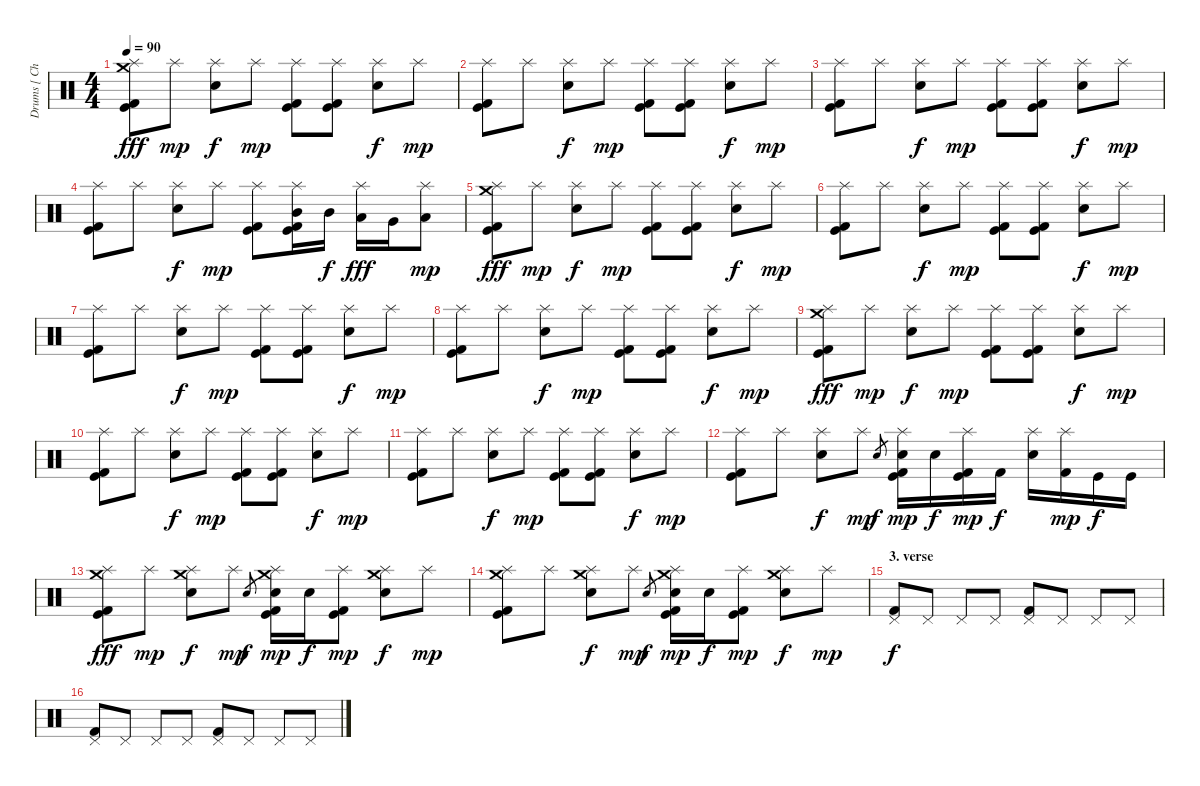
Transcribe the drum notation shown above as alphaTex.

\track ("Drums [ Christoph Schneider ]" "Drums [ Ch") {instrument percussion}
\staff {score}
\articulation defaults
\ts (4 4)
\tempo 90
\clef neutral
\ks c
("Splash (hit)" "Kick (hit)" "Kick (hit) 2" "Crash medium (hit)").8{dy fff} "Splash (hit)".8{dy mp} ("Splash (hit)" "Snare (hit) 2").8{dy f} "Splash (hit)".8{dy mp} ("Splash (hit)" "Kick (hit)" "Kick (hit) 2").8 ("Splash (hit)" "Kick (hit)" "Kick (hit) 2").8 ("Splash (hit)" "Snare (hit) 2").8{dy f} "Splash (hit)".8{dy mp} |
("Splash (hit)" "Kick (hit)" "Kick (hit) 2").8 "Splash (hit)".8 ("Splash (hit)" "Snare (hit) 2").8{dy f} "Splash (hit)".8{dy mp} ("Splash (hit)" "Kick (hit)" "Kick (hit) 2").8 ("Splash (hit)" "Kick (hit)" "Kick (hit) 2").8 ("Splash (hit)" "Snare (hit) 2").8{dy f} "Splash (hit)".8{dy mp} |
("Splash (hit)" "Kick (hit)" "Kick (hit) 2").8 "Splash (hit)".8 ("Splash (hit)" "Snare (hit) 2").8{dy f} "Splash (hit)".8{dy mp} ("Splash (hit)" "Kick (hit)" "Kick (hit) 2").8 ("Splash (hit)" "Kick (hit)" "Kick (hit) 2").8 ("Splash (hit)" "Snare (hit) 2").8{dy f} "Splash (hit)".8{dy mp} |
("Splash (hit)" "Kick (hit)" "Kick (hit) 2").8 "Splash (hit)".8 ("Splash (hit)" "Snare (hit) 2").8{dy f} "Splash (hit)".8{dy mp} ("Splash (hit)" "Kick (hit)" "Kick (hit) 2").8 ("Splash (hit)" "Kick (hit)" "Kick (hit) 2" "Mid Tom (hit)").16 "Mid Tom (hit)".16{dy f} ("Splash (hit)" "Low Tom (hit)").16{dy fff} "Very Low Tom (hit)".16 ("Splash (hit)" "Low Floor Tom (hit)").8{dy mp} |
("Splash (hit)" "Kick (hit)" "Kick (hit) 2" "Crash medium (hit)").8{dy fff} "Splash (hit)".8{dy mp} ("Splash (hit)" "Snare (hit) 2").8{dy f} "Splash (hit)".8{dy mp} ("Splash (hit)" "Kick (hit)" "Kick (hit) 2").8 ("Splash (hit)" "Kick (hit)" "Kick (hit) 2").8 ("Splash (hit)" "Snare (hit) 2").8{dy f} "Splash (hit)".8{dy mp} |
("Splash (hit)" "Kick (hit)" "Kick (hit) 2").8 "Splash (hit)".8 ("Splash (hit)" "Snare (hit) 2").8{dy f} "Splash (hit)".8{dy mp} ("Splash (hit)" "Kick (hit)" "Kick (hit) 2").8 ("Splash (hit)" "Kick (hit)" "Kick (hit) 2").8 ("Splash (hit)" "Snare (hit) 2").8{dy f} "Splash (hit)".8{dy mp} |
("Splash (hit)" "Kick (hit)" "Kick (hit) 2").8 "Splash (hit)".8 ("Splash (hit)" "Snare (hit) 2").8{dy f} "Splash (hit)".8{dy mp} ("Splash (hit)" "Kick (hit)" "Kick (hit) 2").8 ("Splash (hit)" "Kick (hit)" "Kick (hit) 2").8 ("Splash (hit)" "Snare (hit) 2").8{dy f} "Splash (hit)".8{dy mp} |
("Splash (hit)" "Kick (hit)" "Kick (hit) 2").8 "Splash (hit)".8 ("Splash (hit)" "Snare (hit) 2").8{dy f} "Splash (hit)".8{dy mp} ("Splash (hit)" "Kick (hit)" "Kick (hit) 2").8 ("Splash (hit)" "Kick (hit)" "Kick (hit) 2").8 ("Splash (hit)" "Snare (hit) 2").8{dy f} "Splash (hit)".8{dy mp} |
("Splash (hit)" "Kick (hit)" "Kick (hit) 2" "Crash medium (hit)").8{dy fff} "Splash (hit)".8{dy mp} ("Splash (hit)" "Snare (hit) 2").8{dy f} "Splash (hit)".8{dy mp} ("Splash (hit)" "Kick (hit)" "Kick (hit) 2").8 ("Splash (hit)" "Kick (hit)" "Kick (hit) 2").8 ("Splash (hit)" "Snare (hit) 2").8{dy f} "Splash (hit)".8{dy mp} |
("Splash (hit)" "Kick (hit)" "Kick (hit) 2").8 "Splash (hit)".8 ("Splash (hit)" "Snare (hit) 2").8{dy f} "Splash (hit)".8{dy mp} ("Splash (hit)" "Kick (hit)" "Kick (hit) 2").8 ("Splash (hit)" "Kick (hit)" "Kick (hit) 2").8 ("Splash (hit)" "Snare (hit) 2").8{dy f} "Splash (hit)".8{dy mp} |
("Splash (hit)" "Kick (hit)" "Kick (hit) 2").8 "Splash (hit)".8 ("Splash (hit)" "Snare (hit) 2").8{dy f} "Splash (hit)".8{dy mp} ("Splash (hit)" "Kick (hit)" "Kick (hit) 2").8 ("Splash (hit)" "Kick (hit)" "Kick (hit) 2").8 ("Splash (hit)" "Snare (hit) 2").8{dy f} "Splash (hit)".8{dy mp} |
("Splash (hit)" "Kick (hit)" "Kick (hit) 2").8 "Splash (hit)".8 ("Splash (hit)" "Snare (hit) 2").8{dy f} "Splash (hit)".8{dy mp} "Snare (hit) 2".8{gr dy f} ("Splash (hit)" "Kick (hit)" "Kick (hit) 2" "Snare (hit) 2").16{dy mp} "Snare (hit) 2".16{dy f} ("Splash (hit)" "Kick (hit)" "Kick (hit) 2").16{dy mp} "Kick (hit) 2".16{dy f} ("Splash (hit)" "Snare (hit) 2").16 ("Splash (hit)" "Kick (hit) 2").16{dy mp} "Kick (hit)".16{dy f} "Kick (hit)".16 |
("Splash (hit)" "Kick (hit)" "Kick (hit) 2" "Crash medium (hit)").8{dy fff} "Splash (hit)".8{dy mp} ("Splash (hit)" "Snare (hit) 2" "Crash medium (hit)").8{dy f} "Splash (hit)".8{dy mp} "Snare (hit) 2".8{gr dy f} ("Splash (hit)" "Kick (hit)" "Kick (hit) 2" "Snare (hit) 2" "Crash medium (hit)").16{dy mp} "Snare (hit) 2".16{dy f} ("Splash (hit)" "Kick (hit)" "Kick (hit) 2").8{dy mp} ("Splash (hit)" "Snare (hit) 2" "Crash medium (hit)").8{dy f} "Splash (hit)".8{dy mp} |
("Splash (hit)" "Kick (hit)" "Kick (hit) 2" "Crash medium (hit)").8 "Splash (hit)".8 ("Splash (hit)" "Snare (hit) 2" "Crash medium (hit)").8{dy f} "Splash (hit)".8{dy mp} "Snare (hit) 2".8{gr dy f} ("Splash (hit)" "Kick (hit)" "Kick (hit) 2" "Crash medium (hit)" "Snare (hit) 2").16{dy mp} "Snare (hit) 2".16{dy f} ("Splash (hit)" "Kick (hit)" "Kick (hit) 2").8{dy mp} ("Splash (hit)" "Snare (hit) 2" "Crash medium (hit)").8{dy f} "Splash (hit)".8{dy mp} |
\section ("" "3. verse")
("Pedal Hi-Hat (hit)" "Kick (hit) 2").8{dy f} "Pedal Hi-Hat (hit)".8 "Pedal Hi-Hat (hit)".8 "Pedal Hi-Hat (hit)".8 ("Pedal Hi-Hat (hit)" "Kick (hit) 2").8 "Pedal Hi-Hat (hit)".8 "Pedal Hi-Hat (hit)".8 "Pedal Hi-Hat (hit)".8 |
("Pedal Hi-Hat (hit)" "Kick (hit) 2").8 "Pedal Hi-Hat (hit)".8 "Pedal Hi-Hat (hit)".8 "Pedal Hi-Hat (hit)".8 ("Pedal Hi-Hat (hit)" "Kick (hit) 2").8 "Pedal Hi-Hat (hit)".8 "Pedal Hi-Hat (hit)".8 "Pedal Hi-Hat (hit)".8
